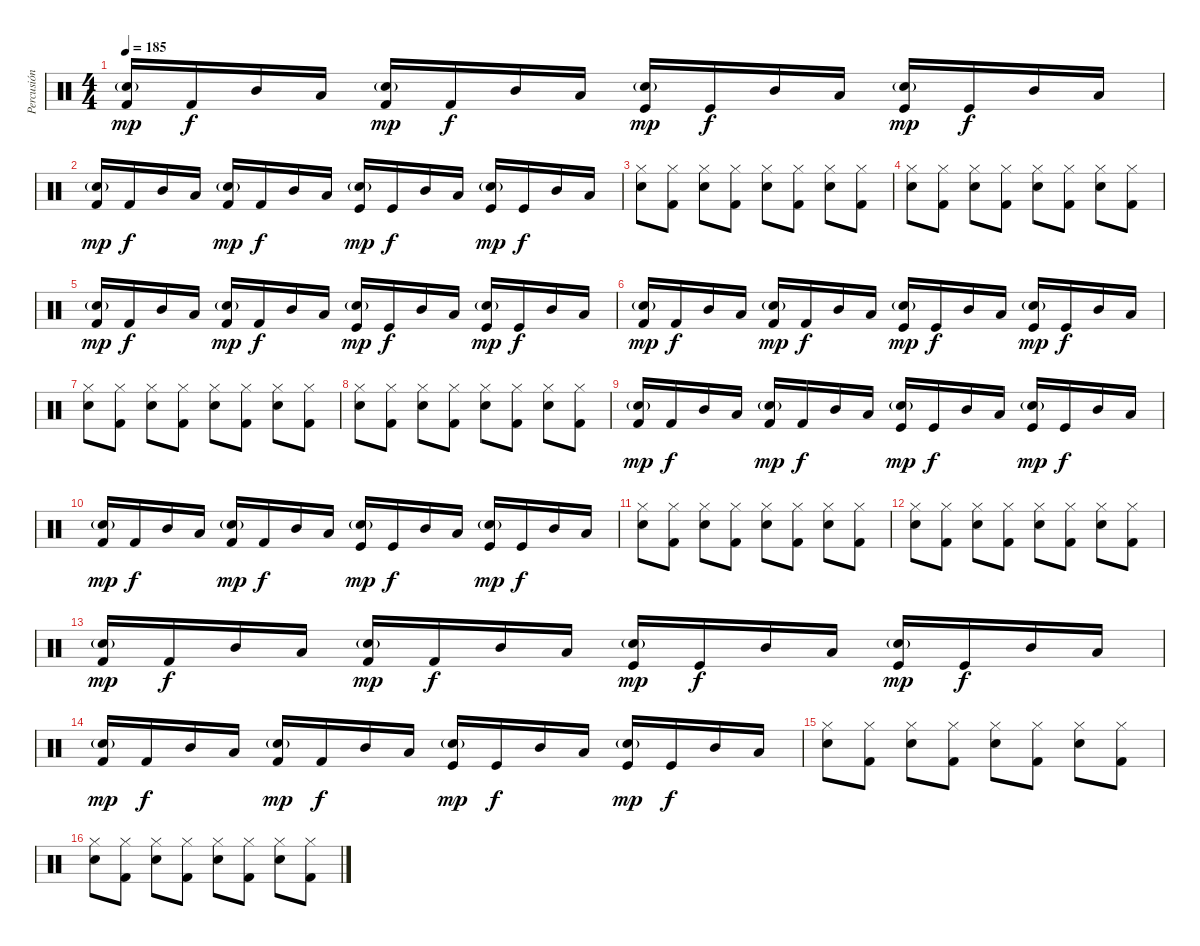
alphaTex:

\track ("Percusión" "Percusión") {instrument percussion}
\staff {score}
\articulation defaults
\ts (4 4)
\tempo 185
\clef neutral
\ks c
("Snare (hit) 2"{g} "Kick (hit) 2").16{dy mp} "Kick (hit) 2".16{dy f} "Mid Tom (hit)".16 "Low Tom (hit)".16 ("Snare (hit) 2"{g} "Kick (hit) 2").16{dy mp} "Kick (hit) 2".16{dy f} "Mid Tom (hit)".16 "Low Tom (hit)".16 ("Snare (hit) 2"{g} "Kick (hit)").16{dy mp} "Kick (hit)".16{dy f} "Mid Tom (hit)".16 "Low Tom (hit)".16 ("Snare (hit) 2"{g} "Kick (hit)").16{dy mp} "Kick (hit)".16{dy f} "Mid Tom (hit)".16 "Low Tom (hit)".16 |
("Snare (hit) 2"{g} "Kick (hit) 2").16{dy mp} "Kick (hit) 2".16{dy f} "Mid Tom (hit)".16 "Low Tom (hit)".16 ("Snare (hit) 2"{g} "Kick (hit) 2").16{dy mp} "Kick (hit) 2".16{dy f} "Mid Tom (hit)".16 "Low Tom (hit)".16 ("Snare (hit) 2"{g} "Kick (hit)").16{dy mp} "Kick (hit)".16{dy f} "Mid Tom (hit)".16 "Low Tom (hit)".16 ("Snare (hit) 2"{g} "Kick (hit)").16{dy mp} "Kick (hit)".16{dy f} "Mid Tom (hit)".16 "Low Tom (hit)".16 |
("Hi-Hat (closed)" "Snare (hit) 2").8 ("Hi-Hat (closed)" "Kick (hit) 2").8 ("Hi-Hat (closed)" "Snare (hit) 2").8 ("Hi-Hat (closed)" "Kick (hit) 2").8 ("Hi-Hat (closed)" "Snare (hit) 2").8 ("Hi-Hat (closed)" "Kick (hit) 2").8 ("Hi-Hat (closed)" "Snare (hit) 2").8 ("Hi-Hat (closed)" "Kick (hit) 2").8 |
("Hi-Hat (closed)" "Snare (hit) 2").8 ("Hi-Hat (closed)" "Kick (hit) 2").8 ("Hi-Hat (closed)" "Snare (hit) 2").8 ("Hi-Hat (closed)" "Kick (hit) 2").8 ("Hi-Hat (closed)" "Snare (hit) 2").8 ("Hi-Hat (closed)" "Kick (hit) 2").8 ("Hi-Hat (closed)" "Snare (hit) 2").8 ("Hi-Hat (closed)" "Kick (hit) 2").8 |
("Snare (hit) 2"{g} "Kick (hit) 2").16{dy mp} "Kick (hit) 2".16{dy f} "Mid Tom (hit)".16 "Low Tom (hit)".16 ("Snare (hit) 2"{g} "Kick (hit) 2").16{dy mp} "Kick (hit) 2".16{dy f} "Mid Tom (hit)".16 "Low Tom (hit)".16 ("Snare (hit) 2"{g} "Kick (hit)").16{dy mp} "Kick (hit)".16{dy f} "Mid Tom (hit)".16 "Low Tom (hit)".16 ("Snare (hit) 2"{g} "Kick (hit)").16{dy mp} "Kick (hit)".16{dy f} "Mid Tom (hit)".16 "Low Tom (hit)".16 |
("Snare (hit) 2"{g} "Kick (hit) 2").16{dy mp} "Kick (hit) 2".16{dy f} "Mid Tom (hit)".16 "Low Tom (hit)".16 ("Snare (hit) 2"{g} "Kick (hit) 2").16{dy mp} "Kick (hit) 2".16{dy f} "Mid Tom (hit)".16 "Low Tom (hit)".16 ("Snare (hit) 2"{g} "Kick (hit)").16{dy mp} "Kick (hit)".16{dy f} "Mid Tom (hit)".16 "Low Tom (hit)".16 ("Snare (hit) 2"{g} "Kick (hit)").16{dy mp} "Kick (hit)".16{dy f} "Mid Tom (hit)".16 "Low Tom (hit)".16 |
("Hi-Hat (closed)" "Snare (hit) 2").8 ("Hi-Hat (closed)" "Kick (hit) 2").8 ("Hi-Hat (closed)" "Snare (hit) 2").8 ("Hi-Hat (closed)" "Kick (hit) 2").8 ("Hi-Hat (closed)" "Snare (hit) 2").8 ("Hi-Hat (closed)" "Kick (hit) 2").8 ("Hi-Hat (closed)" "Snare (hit) 2").8 ("Hi-Hat (closed)" "Kick (hit) 2").8 |
("Hi-Hat (closed)" "Snare (hit) 2").8 ("Hi-Hat (closed)" "Kick (hit) 2").8 ("Hi-Hat (closed)" "Snare (hit) 2").8 ("Hi-Hat (closed)" "Kick (hit) 2").8 ("Hi-Hat (closed)" "Snare (hit) 2").8 ("Hi-Hat (closed)" "Kick (hit) 2").8 ("Hi-Hat (closed)" "Snare (hit) 2").8 ("Hi-Hat (closed)" "Kick (hit) 2").8 |
("Snare (hit) 2"{g} "Kick (hit) 2").16{dy mp} "Kick (hit) 2".16{dy f} "Mid Tom (hit)".16 "Low Tom (hit)".16 ("Snare (hit) 2"{g} "Kick (hit) 2").16{dy mp} "Kick (hit) 2".16{dy f} "Mid Tom (hit)".16 "Low Tom (hit)".16 ("Snare (hit) 2"{g} "Kick (hit)").16{dy mp} "Kick (hit)".16{dy f} "Mid Tom (hit)".16 "Low Tom (hit)".16 ("Snare (hit) 2"{g} "Kick (hit)").16{dy mp} "Kick (hit)".16{dy f} "Mid Tom (hit)".16 "Low Tom (hit)".16 |
("Snare (hit) 2"{g} "Kick (hit) 2").16{dy mp} "Kick (hit) 2".16{dy f} "Mid Tom (hit)".16 "Low Tom (hit)".16 ("Snare (hit) 2"{g} "Kick (hit) 2").16{dy mp} "Kick (hit) 2".16{dy f} "Mid Tom (hit)".16 "Low Tom (hit)".16 ("Snare (hit) 2"{g} "Kick (hit)").16{dy mp} "Kick (hit)".16{dy f} "Mid Tom (hit)".16 "Low Tom (hit)".16 ("Snare (hit) 2"{g} "Kick (hit)").16{dy mp} "Kick (hit)".16{dy f} "Mid Tom (hit)".16 "Low Tom (hit)".16 |
("Hi-Hat (closed)" "Snare (hit) 2").8 ("Hi-Hat (closed)" "Kick (hit) 2").8 ("Hi-Hat (closed)" "Snare (hit) 2").8 ("Hi-Hat (closed)" "Kick (hit) 2").8 ("Hi-Hat (closed)" "Snare (hit) 2").8 ("Hi-Hat (closed)" "Kick (hit) 2").8 ("Hi-Hat (closed)" "Snare (hit) 2").8 ("Hi-Hat (closed)" "Kick (hit) 2").8 |
("Hi-Hat (closed)" "Snare (hit) 2").8 ("Hi-Hat (closed)" "Kick (hit) 2").8 ("Hi-Hat (closed)" "Snare (hit) 2").8 ("Hi-Hat (closed)" "Kick (hit) 2").8 ("Hi-Hat (closed)" "Snare (hit) 2").8 ("Hi-Hat (closed)" "Kick (hit) 2").8 ("Hi-Hat (closed)" "Snare (hit) 2").8 ("Hi-Hat (closed)" "Kick (hit) 2").8 |
("Snare (hit) 2"{g} "Kick (hit) 2").16{dy mp} "Kick (hit) 2".16{dy f} "Mid Tom (hit)".16 "Low Tom (hit)".16 ("Snare (hit) 2"{g} "Kick (hit) 2").16{dy mp} "Kick (hit) 2".16{dy f} "Mid Tom (hit)".16 "Low Tom (hit)".16 ("Snare (hit) 2"{g} "Kick (hit)").16{dy mp} "Kick (hit)".16{dy f} "Mid Tom (hit)".16 "Low Tom (hit)".16 ("Snare (hit) 2"{g} "Kick (hit)").16{dy mp} "Kick (hit)".16{dy f} "Mid Tom (hit)".16 "Low Tom (hit)".16 |
("Snare (hit) 2"{g} "Kick (hit) 2").16{dy mp} "Kick (hit) 2".16{dy f} "Mid Tom (hit)".16 "Low Tom (hit)".16 ("Snare (hit) 2"{g} "Kick (hit) 2").16{dy mp} "Kick (hit) 2".16{dy f} "Mid Tom (hit)".16 "Low Tom (hit)".16 ("Snare (hit) 2"{g} "Kick (hit)").16{dy mp} "Kick (hit)".16{dy f} "Mid Tom (hit)".16 "Low Tom (hit)".16 ("Snare (hit) 2"{g} "Kick (hit)").16{dy mp} "Kick (hit)".16{dy f} "Mid Tom (hit)".16 "Low Tom (hit)".16 |
("Hi-Hat (closed)" "Snare (hit) 2").8 ("Hi-Hat (closed)" "Kick (hit) 2").8 ("Hi-Hat (closed)" "Snare (hit) 2").8 ("Hi-Hat (closed)" "Kick (hit) 2").8 ("Hi-Hat (closed)" "Snare (hit) 2").8 ("Hi-Hat (closed)" "Kick (hit) 2").8 ("Hi-Hat (closed)" "Snare (hit) 2").8 ("Hi-Hat (closed)" "Kick (hit) 2").8 |
("Hi-Hat (closed)" "Snare (hit) 2").8 ("Hi-Hat (closed)" "Kick (hit) 2").8 ("Hi-Hat (closed)" "Snare (hit) 2").8 ("Hi-Hat (closed)" "Kick (hit) 2").8 ("Hi-Hat (closed)" "Snare (hit) 2").8 ("Hi-Hat (closed)" "Kick (hit) 2").8 ("Hi-Hat (closed)" "Snare (hit) 2").8 ("Hi-Hat (closed)" "Kick (hit) 2").8
